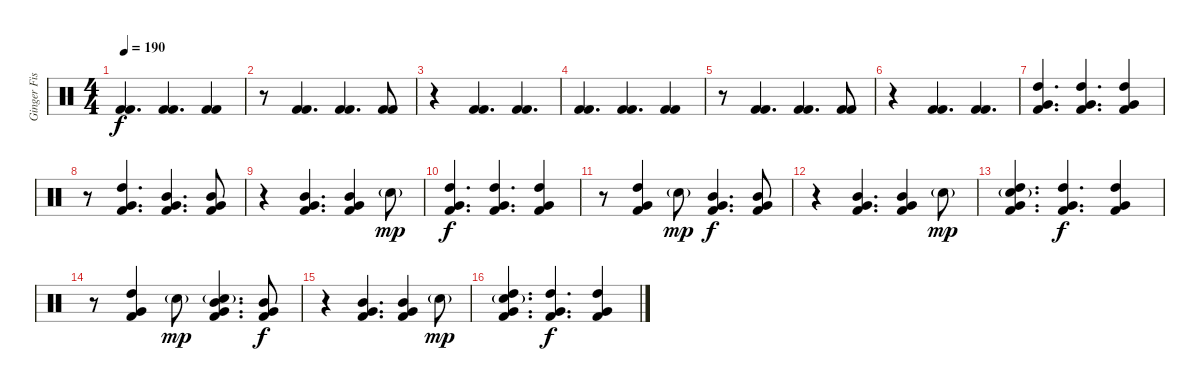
\track ("Ginger Fish" "Ginger Fis") {instrument percussion}
\staff {score}
\articulation defaults
\ts (4 4)
\tempo 190
\clef neutral
\ks c
("Kick (hit) 2" "Kick (hit) 2").4{d dy f} ("Kick (hit) 2" "Kick (hit) 2").4{d} ("Kick (hit) 2" "Kick (hit) 2").4 |
r.8 ("Kick (hit) 2" "Kick (hit) 2").4{d} ("Kick (hit) 2" "Kick (hit) 2").4{d} ("Kick (hit) 2" "Kick (hit) 2").8 |
r.4 ("Kick (hit) 2" "Kick (hit) 2").4{d} ("Kick (hit) 2" "Kick (hit) 2").4{d} |
("Kick (hit) 2" "Kick (hit) 2").4{d} ("Kick (hit) 2" "Kick (hit) 2").4{d} ("Kick (hit) 2" "Kick (hit) 2").4 |
r.8 ("Kick (hit) 2" "Kick (hit) 2").4{d} ("Kick (hit) 2" "Kick (hit) 2").4{d} ("Kick (hit) 2" "Kick (hit) 2").8 |
r.4 ("Kick (hit) 2" "Kick (hit) 2").4{d} ("Kick (hit) 2" "Kick (hit) 2").4{d} |
("High Tom (hit)" "Very Low Tom (hit)" "Kick (hit) 2").4{d} ("High Tom (hit)" "Very Low Tom (hit)" "Kick (hit) 2").4{d} ("High Tom (hit)" "Very Low Tom (hit)" "Kick (hit) 2").4 |
r.8 ("High Tom (hit)" "Very Low Tom (hit)" "Kick (hit) 2").4{d} ("Mid Tom (hit)" "Very Low Tom (hit)" "Kick (hit) 2").4{d} ("Mid Tom (hit)" "Very Low Tom (hit)" "Kick (hit) 2").8 |
r.4 ("Mid Tom (hit)" "Very Low Tom (hit)" "Kick (hit) 2").4{d} ("Mid Tom (hit)" "Very Low Tom (hit)" "Kick (hit) 2").4 "Electric Snare (hit)"{g}.8{dy mp} |
("High Tom (hit)" "Very Low Tom (hit)" "Kick (hit) 2").4{d dy f} ("High Tom (hit)" "Very Low Tom (hit)" "Kick (hit) 2").4{d} ("High Tom (hit)" "Very Low Tom (hit)" "Kick (hit) 2").4 |
r.8 ("High Tom (hit)" "Very Low Tom (hit)" "Kick (hit) 2").4 "Electric Snare (hit)"{g}.8{dy mp} ("Mid Tom (hit)" "Very Low Tom (hit)" "Kick (hit) 2").4{d dy f} ("Mid Tom (hit)" "Very Low Tom (hit)" "Kick (hit) 2").8 |
r.4 ("Mid Tom (hit)" "Very Low Tom (hit)" "Kick (hit) 2").4{d} ("Mid Tom (hit)" "Very Low Tom (hit)" "Kick (hit) 2").4 "Electric Snare (hit)"{g}.8{dy mp} |
("High Tom (hit)" "Very Low Tom (hit)" "Electric Snare (hit)"{g} "Kick (hit) 2").4{d} ("High Tom (hit)" "Very Low Tom (hit)" "Kick (hit) 2").4{d dy f} ("High Tom (hit)" "Very Low Tom (hit)" "Kick (hit) 2").4 |
r.8 ("High Tom (hit)" "Very Low Tom (hit)" "Kick (hit) 2").4 "Electric Snare (hit)"{g}.8{dy mp} ("Mid Tom (hit)" "Very Low Tom (hit)" "Electric Snare (hit)"{g} "Kick (hit) 2").4{d} ("Mid Tom (hit)" "Very Low Tom (hit)" "Kick (hit) 2").8{dy f} |
r.4 ("Mid Tom (hit)" "Very Low Tom (hit)" "Kick (hit) 2").4{d} ("Mid Tom (hit)" "Very Low Tom (hit)" "Kick (hit) 2").4 "Electric Snare (hit)"{g}.8{dy mp} |
("High Tom (hit)" "Very Low Tom (hit)" "Electric Snare (hit)"{g} "Kick (hit) 2").4{d} ("High Tom (hit)" "Very Low Tom (hit)" "Kick (hit) 2").4{d dy f} ("High Tom (hit)" "Very Low Tom (hit)" "Kick (hit) 2").4
